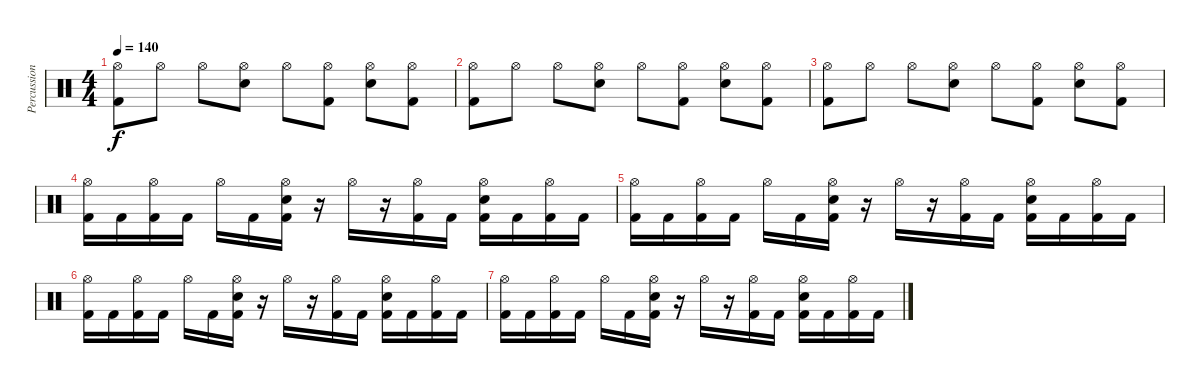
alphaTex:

\track ("Percussion" "Percussion") {instrument percussion}
\staff {score}
\articulation defaults
\ts (4 4)
\tempo 140
\clef neutral
\ks c
("Hi-Hat (open)" "Kick (hit) 2").8{dy f} "Hi-Hat (open)".8 "Hi-Hat (open)".8 ("Hi-Hat (open)" "Electric Snare (hit)").8 "Hi-Hat (open)".8 ("Hi-Hat (open)" "Kick (hit) 2").8 ("Hi-Hat (open)" "Electric Snare (hit)").8 ("Hi-Hat (open)" "Kick (hit) 2").8 |
("Hi-Hat (open)" "Kick (hit) 2").8 "Hi-Hat (open)".8 "Hi-Hat (open)".8 ("Hi-Hat (open)" "Electric Snare (hit)").8 "Hi-Hat (open)".8 ("Hi-Hat (open)" "Kick (hit) 2").8 ("Hi-Hat (open)" "Electric Snare (hit)").8 ("Hi-Hat (open)" "Kick (hit) 2").8 |
("Hi-Hat (open)" "Kick (hit) 2").8 "Hi-Hat (open)".8 "Hi-Hat (open)".8 ("Hi-Hat (open)" "Electric Snare (hit)").8 "Hi-Hat (open)".8 ("Hi-Hat (open)" "Kick (hit) 2").8 ("Hi-Hat (open)" "Electric Snare (hit)").8 ("Hi-Hat (open)" "Kick (hit) 2").8 |
("Hi-Hat (open)" "Kick (hit) 2").16 "Kick (hit) 2".16 ("Hi-Hat (open)" "Kick (hit) 2").16 "Kick (hit) 2".16 "Hi-Hat (open)".16 "Kick (hit) 2".16 ("Hi-Hat (open)" "Electric Snare (hit)" "Kick (hit) 2").16 r.16 "Hi-Hat (open)".16 r.16 ("Hi-Hat (open)" "Kick (hit) 2").16 "Kick (hit) 2".16 ("Hi-Hat (open)" "Electric Snare (hit)" "Kick (hit) 2").16 "Kick (hit) 2".16 ("Hi-Hat (open)" "Kick (hit) 2").16 "Kick (hit) 2".16 |
("Hi-Hat (open)" "Kick (hit) 2").16 "Kick (hit) 2".16 ("Hi-Hat (open)" "Kick (hit) 2").16 "Kick (hit) 2".16 "Hi-Hat (open)".16 "Kick (hit) 2".16 ("Hi-Hat (open)" "Electric Snare (hit)" "Kick (hit) 2").16 r.16 "Hi-Hat (open)".16 r.16 ("Hi-Hat (open)" "Kick (hit) 2").16 "Kick (hit) 2".16 ("Hi-Hat (open)" "Electric Snare (hit)" "Kick (hit) 2").16 "Kick (hit) 2".16 ("Hi-Hat (open)" "Kick (hit) 2").16 "Kick (hit) 2".16 |
("Hi-Hat (open)" "Kick (hit) 2").16 "Kick (hit) 2".16 ("Hi-Hat (open)" "Kick (hit) 2").16 "Kick (hit) 2".16 "Hi-Hat (open)".16 "Kick (hit) 2".16 ("Hi-Hat (open)" "Electric Snare (hit)" "Kick (hit) 2").16 r.16 "Hi-Hat (open)".16 r.16 ("Hi-Hat (open)" "Kick (hit) 2").16 "Kick (hit) 2".16 ("Hi-Hat (open)" "Electric Snare (hit)" "Kick (hit) 2").16 "Kick (hit) 2".16 ("Hi-Hat (open)" "Kick (hit) 2").16 "Kick (hit) 2".16 |
("Hi-Hat (open)" "Kick (hit) 2").16 "Kick (hit) 2".16 ("Hi-Hat (open)" "Kick (hit) 2").16 "Kick (hit) 2".16 "Hi-Hat (open)".16 "Kick (hit) 2".16 ("Hi-Hat (open)" "Electric Snare (hit)" "Kick (hit) 2").16 r.16 "Hi-Hat (open)".16 r.16 ("Hi-Hat (open)" "Kick (hit) 2").16 "Kick (hit) 2".16 ("Hi-Hat (open)" "Electric Snare (hit)" "Kick (hit) 2").16 "Kick (hit) 2".16 ("Hi-Hat (open)" "Kick (hit) 2").16 "Kick (hit) 2".16
